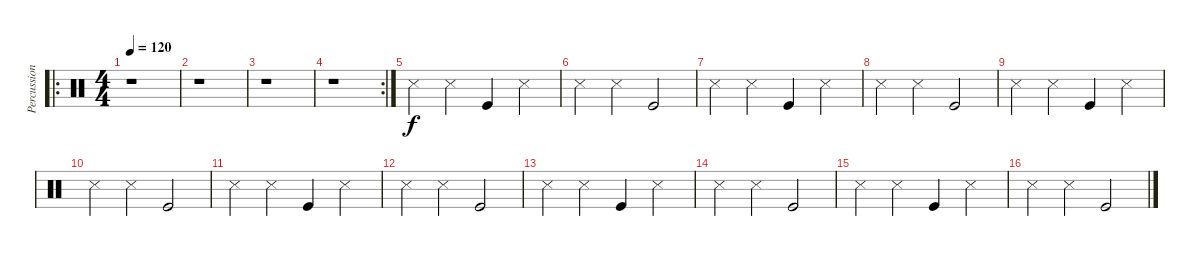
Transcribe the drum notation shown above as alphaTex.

\track ("Percussion" "Percussion") {instrument percussion}
\staff {score}
\articulation defaults
\ro
\ts (4 4)
\tempo 120
\clef neutral
\ks c
r.1{dy f} |
r.1 |
r.1 |
\rc 2
r.1 |
"Snare (side stick) 3".4 "Snare (side stick) 3".4 "Kick (hit)".4 "Snare (side stick) 3".4 |
"Snare (side stick) 3".4 "Snare (side stick) 3".4 "Kick (hit)".2 |
"Snare (side stick) 3".4 "Snare (side stick) 3".4 "Kick (hit)".4 "Snare (side stick) 3".4 |
"Snare (side stick) 3".4 "Snare (side stick) 3".4 "Kick (hit)".2 |
"Snare (side stick) 3".4 "Snare (side stick) 3".4 "Kick (hit)".4 "Snare (side stick) 3".4 |
"Snare (side stick) 3".4 "Snare (side stick) 3".4 "Kick (hit)".2 |
"Snare (side stick) 3".4 "Snare (side stick) 3".4 "Kick (hit)".4 "Snare (side stick) 3".4 |
"Snare (side stick) 3".4 "Snare (side stick) 3".4 "Kick (hit)".2 |
"Snare (side stick) 3".4 "Snare (side stick) 3".4 "Kick (hit)".4 "Snare (side stick) 3".4 |
"Snare (side stick) 3".4 "Snare (side stick) 3".4 "Kick (hit)".2 |
"Snare (side stick) 3".4 "Snare (side stick) 3".4 "Kick (hit)".4 "Snare (side stick) 3".4 |
"Snare (side stick) 3".4 "Snare (side stick) 3".4 "Kick (hit)".2
